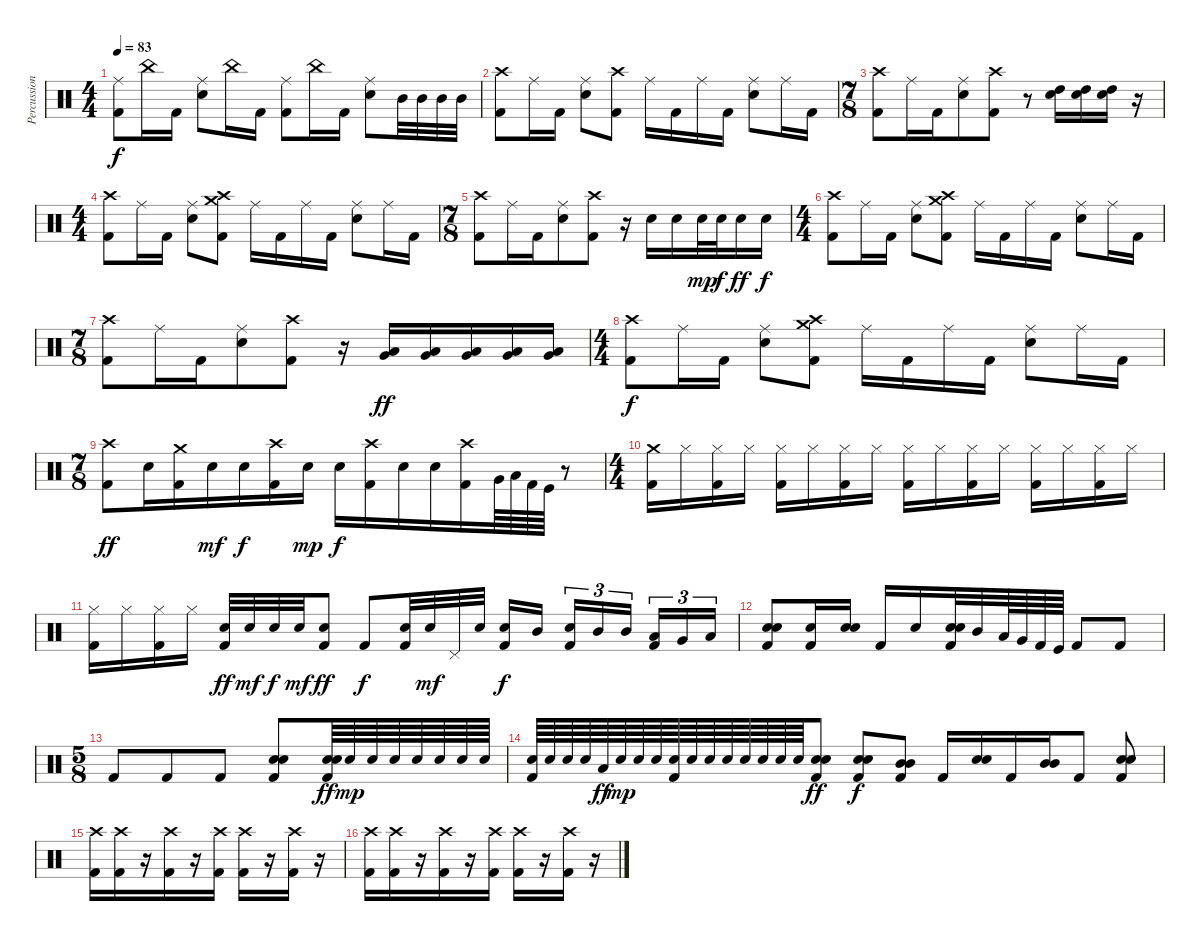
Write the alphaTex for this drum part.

\track ("Percussion" "Percussion") {instrument percussion}
\staff {score}
\articulation defaults
\ts (4 4)
\tempo 83
\clef neutral
\ks c
("Ride (middle)" "Kick (hit) 2").8{dy f} "China (hit)".16 "Kick (hit) 2".16 ("Ride (middle)" "Electric Snare (hit)").8 "China (hit)".16 "Kick (hit) 2".16 ("Ride (middle)" "Kick (hit) 2").8 "China (hit)".16 "Kick (hit) 2".16 ("Ride (middle)" "Electric Snare (hit)").8 "Mid Tom (hit)".32 "Mid Tom (hit)".32 "Mid Tom (hit)".32 "Mid Tom (hit)".32 |
("Crash high (hit)" "Kick (hit) 2").8 "Ride (middle)".16 "Kick (hit) 2".16 ("Ride (middle)" "Electric Snare (hit)").8 ("Crash high (hit)" "Kick (hit) 2").8 "Ride (middle)".16 "Kick (hit) 2".16 "Ride (middle)".16 "Kick (hit) 2".16 ("Ride (middle)" "Electric Snare (hit)").8 "Ride (middle)".16 "Kick (hit) 2".16 |
\ts (7 8)
("Crash high (hit)" "Kick (hit) 2").8 "Ride (middle)".16 "Kick (hit) 2".16 ("Ride (middle)" "Electric Snare (hit)").8 ("Crash high (hit)" "Kick (hit) 2").8 r.8 ("Electric Snare (hit)" "High Tom (hit)").16{bd 480} ("Electric Snare (hit)" "High Tom (hit)").16{bd 480} ("Electric Snare (hit)" "High Tom (hit)").16{bd 480} r.16 |
\ts (4 4)
("Crash high (hit)" "Kick (hit) 2").8 "Ride (middle)".16 "Kick (hit) 2".16 ("Ride (middle)" "Electric Snare (hit)").8 ("Crash high (hit)" "Crash medium (hit)" "Kick (hit) 2").8 "Ride (middle)".16 "Kick (hit) 2".16 "Ride (middle)".16 "Kick (hit) 2".16 ("Ride (middle)" "Electric Snare (hit)").8 "Ride (middle)".16 "Kick (hit) 2".16 |
\ts (7 8)
("Crash high (hit)" "Kick (hit) 2").8 "Ride (middle)".16 "Kick (hit) 2".16 ("Ride (middle)" "Electric Snare (hit)").8 ("Crash high (hit)" "Kick (hit) 2").8 r.16 "Electric Snare (hit)".16 "Electric Snare (hit)".16 "Electric Snare (hit)".32{dy mp} "Electric Snare (hit)".32{dy f} "Electric Snare (hit)".16{dy ff} "Electric Snare (hit)".16{dy f} |
\ts (4 4)
("Crash high (hit)" "Kick (hit) 2").8 "Ride (middle)".16 "Kick (hit) 2".16 ("Ride (middle)" "Electric Snare (hit)").8 ("Crash high (hit)" "Crash medium (hit)" "Kick (hit) 2").8 "Ride (middle)".16 "Kick (hit) 2".16 "Ride (middle)".16 "Kick (hit) 2".16 ("Ride (middle)" "Electric Snare (hit)").8 "Ride (middle)".16 "Kick (hit) 2".16 |
\ts (7 8)
("Crash high (hit)" "Kick (hit) 2").8 "Ride (middle)".16 "Kick (hit) 2".16 ("Ride (middle)" "Electric Snare (hit)").8 ("Crash high (hit)" "Kick (hit) 2").8 r.16 ("Very Low Tom (hit)" "Low Floor Tom (hit)").16{dy ff} ("Very Low Tom (hit)" "Low Floor Tom (hit)").16 ("Very Low Tom (hit)" "Low Floor Tom (hit)").16 ("Very Low Tom (hit)" "Low Floor Tom (hit)").16 ("Very Low Tom (hit)" "Low Floor Tom (hit)").16 |
\ts (4 4)
("Crash high (hit)" "Kick (hit) 2").8{dy f} "Ride (middle)".16 "Kick (hit) 2".16 ("Ride (middle)" "Electric Snare (hit)").8 ("Crash high (hit)" "Crash medium (hit)" "Kick (hit) 2").8 "Ride (middle)".16 "Kick (hit) 2".16 "Ride (middle)".16 "Kick (hit) 2".16 ("Ride (middle)" "Electric Snare (hit)").8 "Ride (middle)".16 "Kick (hit) 2".16 |
\ts (7 8)
("Crash high (hit)" "Kick (hit) 2").8{dy ff} "Electric Snare (hit)".16 ("Crash medium (hit)" "Kick (hit) 2").16 "Electric Snare (hit)".16{dy mf} "Electric Snare (hit)".16{dy f} ("Crash high (hit)" "Kick (hit) 2").16 "Electric Snare (hit)".16{dy mp} "Electric Snare (hit)".16{dy f} ("Crash high (hit)" "Kick (hit) 2").16 "Electric Snare (hit)".16 "Electric Snare (hit)".16 ("Crash high (hit)" "Kick (hit) 2").16 "Very Low Tom (hit)".64 "Low Floor Tom (hit)".64 "Kick (hit) 2".64 "Kick (hit)".64 r.8 |
\ts (4 4)
("Crash medium (hit)" "Kick (hit) 2").16 "Hi-Hat (closed)".16 ("Hi-Hat (closed)" "Kick (hit) 2").16 "Hi-Hat (closed)".16 ("Hi-Hat (closed)" "Kick (hit) 2").16 "Hi-Hat (closed)".16 ("Hi-Hat (closed)" "Kick (hit) 2").16 "Hi-Hat (closed)".16 ("Hi-Hat (closed)" "Kick (hit) 2").16 "Hi-Hat (closed)".16 ("Hi-Hat (closed)" "Kick (hit) 2").16 "Hi-Hat (closed)".16 ("Hi-Hat (closed)" "Kick (hit) 2").16 "Hi-Hat (closed)".16 ("Hi-Hat (closed)" "Kick (hit) 2").16 "Hi-Hat (closed)".16 |
("Hi-Hat (closed)" "Kick (hit) 2").16 "Hi-Hat (closed)".16 ("Hi-Hat (closed)" "Kick (hit) 2").16 "Hi-Hat (closed)".16 ("Electric Snare (hit)" "Kick (hit) 2").32{dy ff} "Electric Snare (hit)".32{dy mf} "Snare (hit) 2".32{dy f} "Electric Snare (hit)".32{dy mf} ("Electric Snare (hit)" "Kick (hit) 2").8{dy ff} "Kick (hit) 2".8{dy f} ("Electric Snare (hit)" "Kick (hit) 2").32 "Electric Snare (hit)".32{dy mf} "Pedal Hi-Hat (hit)".32 "Electric Snare (hit)".32 ("Electric Snare (hit)" "Kick (hit) 2").16{dy f} "Mid Tom (hit)".16{beam splitsecondary} ("Electric Snare (hit)" "Kick (hit) 2").16{tu (3 2)} "Mid Tom (hit)".16{tu (3 2)} "Mid Tom (hit)".16{tu (3 2)} ("Low Tom (hit)" "Kick (hit) 2").16{tu (3 2)} "Very Low Tom (hit)".16{tu (3 2)} "Low Tom (hit)".16{tu (3 2)} |
("Electric Snare (hit)" "Electric Snare (hit)" "Kick (hit) 2").8{bd 120} ("Electric Snare (hit)" "Kick (hit) 2").16 ("Electric Snare (hit)" "Electric Snare (hit)").16{bd 120} "Kick (hit) 2".16 "Electric Snare (hit)".16 ("Electric Snare (hit)" "Electric Snare (hit)" "Kick (hit) 2").32{bd 120} "Mid Tom (hit)".32 "Low Tom (hit)".64 "Very Low Tom (hit)".64 "Kick (hit) 2".64 "Kick (hit)".64 "Kick (hit) 2".8 "Kick (hit) 2".8 |
\ts (5 8)
"Kick (hit) 2".8 "Kick (hit) 2".8 "Kick (hit) 2".8 ("Electric Snare (hit)" "Electric Snare (hit)" "Kick (hit) 2").8{bd 120} ("Electric Snare (hit)" "Electric Snare (hit)" "Kick (hit) 2").64{bd 480 dy ff} "Electric Snare (hit)".64{dy mp} "Electric Snare (hit)".64 "Electric Snare (hit)".64 "Electric Snare (hit)".64 "Electric Snare (hit)".64 "Electric Snare (hit)".64 "Electric Snare (hit)".64 |
("Electric Snare (hit)" "Kick (hit) 2").64 "Electric Snare (hit)".64 "Electric Snare (hit)".64 "Electric Snare (hit)".64 "Low Tom (hit)".64{dy ff} "Electric Snare (hit)".64{dy mp} "Electric Snare (hit)".64 "Electric Snare (hit)".64 ("Electric Snare (hit)" "Kick (hit) 2").64 "Electric Snare (hit)".64 "Electric Snare (hit)".64 "Electric Snare (hit)".64 "Electric Snare (hit)".64 "Electric Snare (hit)".64 "Electric Snare (hit)".64 "Electric Snare (hit)".64 ("Electric Snare (hit)" "Electric Snare (hit)" "Kick (hit) 2").8{bd 120 dy ff} ("Electric Snare (hit)" "Electric Snare (hit)" "Kick (hit) 2").8{bd 120 dy f} ("Mid Tom (hit)" "Mid Tom (hit)" "Kick (hit) 2").8{bd 60} "Kick (hit) 2".16 ("Electric Snare (hit)" "Electric Snare (hit)").16{bd 120} "Kick (hit) 2".16 ("Mid Tom (hit)" "Mid Tom (hit)").16{bd 120} "Kick (hit) 2".8 ("Electric Snare (hit)" "Electric Snare (hit)" "Kick (hit) 2").8{bd 60} |
("Crash high (hit)" "Kick (hit) 2").16 ("Crash high (hit)" "Kick (hit) 2").16 r.16{volume 0} ("Crash high (hit)" "Kick (hit) 2").16{volume 16} r.16{volume 0} ("Crash high (hit)" "Kick (hit) 2").16{volume 16} ("Crash high (hit)" "Kick (hit) 2").16 r.16{volume 0} ("Crash high (hit)" "Kick (hit) 2").16{volume 16} r.16{volume 0} |
("Crash high (hit)" "Kick (hit) 2").16{volume 16} ("Crash high (hit)" "Kick (hit) 2").16 r.16{volume 0} ("Crash high (hit)" "Kick (hit) 2").16{volume 16} r.16{volume 0} ("Crash high (hit)" "Kick (hit) 2").16{volume 16} ("Crash high (hit)" "Kick (hit) 2").16 r.16{volume 0} ("Crash high (hit)" "Kick (hit) 2").16{volume 16} r.16{volume 0}
